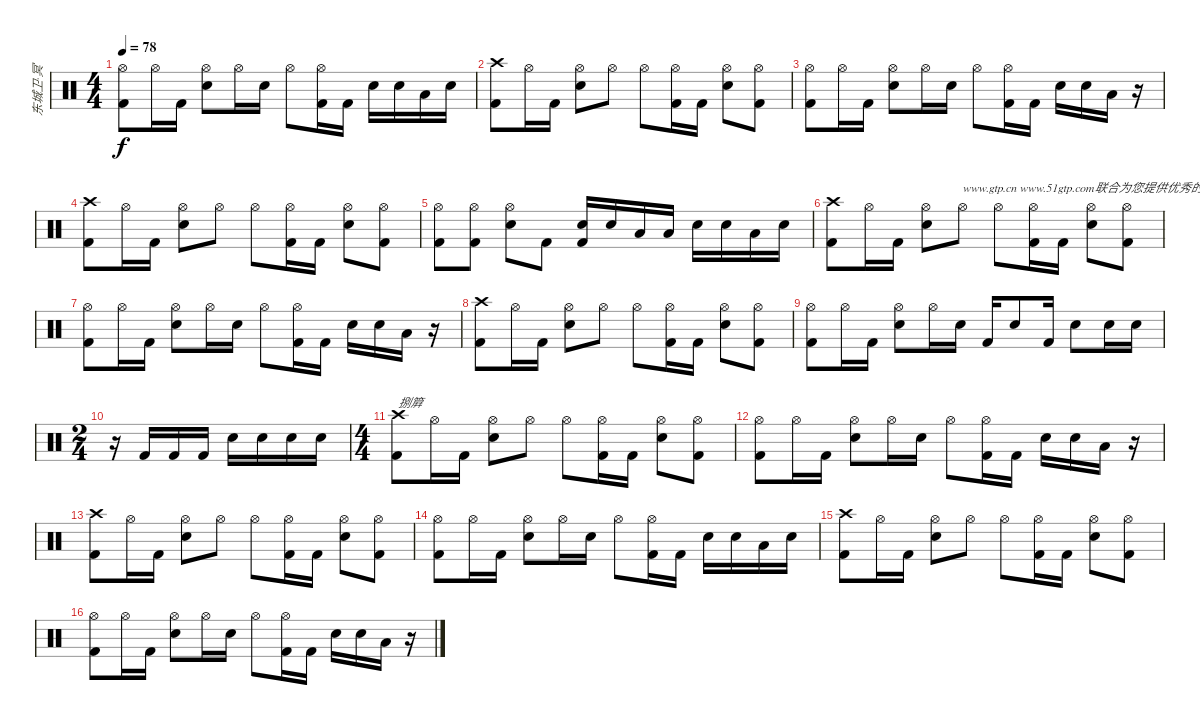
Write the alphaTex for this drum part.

\track ("东城卫·冥" "东城卫·冥") {instrument percussion}
\staff {score}
\articulation defaults
\ts (4 4)
\tempo 78
\clef neutral
\ks c
("Hi-Hat (open)" "Kick (hit) 2").8{dy f} "Hi-Hat (open)".16 "Kick (hit) 2".16 ("Hi-Hat (open)" "Electric Snare (hit)").8 "Hi-Hat (open)".16 "Electric Snare (hit)".16 "Hi-Hat (open)".8 ("Hi-Hat (open)" "Kick (hit) 2").16 "Kick (hit) 2".16 "Electric Snare (hit)".16 "Electric Snare (hit)".16 "Low Tom (hit)".16 "Electric Snare (hit)".16 |
("Crash high (hit)" "Kick (hit) 2").8 "Hi-Hat (open)".16 "Kick (hit) 2".16 ("Hi-Hat (open)" "Electric Snare (hit)").8 "Hi-Hat (open)".8 "Hi-Hat (open)".8 ("Hi-Hat (open)" "Kick (hit) 2").16 "Kick (hit) 2".16 ("Hi-Hat (open)" "Electric Snare (hit)").8 ("Hi-Hat (open)" "Kick (hit) 2").8 |
("Hi-Hat (open)" "Kick (hit) 2").8 "Hi-Hat (open)".16 "Kick (hit) 2".16 ("Hi-Hat (open)" "Electric Snare (hit)").8 "Hi-Hat (open)".16 "Electric Snare (hit)".16 "Hi-Hat (open)".8 ("Hi-Hat (open)" "Kick (hit) 2").16 "Kick (hit) 2".16 "Electric Snare (hit)".16 "Electric Snare (hit)".16 "Low Tom (hit)".16 r.16 |
("Crash high (hit)" "Kick (hit) 2").8 "Hi-Hat (open)".16 "Kick (hit) 2".16 ("Hi-Hat (open)" "Electric Snare (hit)").8 "Hi-Hat (open)".8 "Hi-Hat (open)".8 ("Hi-Hat (open)" "Kick (hit) 2").16 "Kick (hit) 2".16 ("Hi-Hat (open)" "Electric Snare (hit)").8 ("Hi-Hat (open)" "Kick (hit) 2").8 |
("Hi-Hat (open)" "Kick (hit) 2").8 ("Hi-Hat (open)" "Kick (hit) 2").8 ("Hi-Hat (open)" "Electric Snare (hit)").8 "Kick (hit) 2".8 ("Electric Snare (hit)" "Kick (hit) 2").16 "Electric Snare (hit)".16 "Low Tom (hit)".16 "Low Tom (hit)".16 "Electric Snare (hit)".16 "Electric Snare (hit)".16 "Low Tom (hit)".16 "Electric Snare (hit)".16 |
("Crash high (hit)" "Kick (hit) 2").8 "Hi-Hat (open)".16 "Kick (hit) 2".16 ("Hi-Hat (open)" "Electric Snare (hit)").8 "Hi-Hat (open)".8{txt "www.gtp.cn www.51gtp.com联合为您提供优秀的GTP!"} "Hi-Hat (open)".8 ("Hi-Hat (open)" "Kick (hit) 2").16 "Kick (hit) 2".16 ("Hi-Hat (open)" "Electric Snare (hit)").8 ("Hi-Hat (open)" "Kick (hit) 2").8 |
("Hi-Hat (open)" "Kick (hit) 2").8 "Hi-Hat (open)".16 "Kick (hit) 2".16 ("Hi-Hat (open)" "Electric Snare (hit)").8 "Hi-Hat (open)".16 "Electric Snare (hit)".16 "Hi-Hat (open)".8 ("Hi-Hat (open)" "Kick (hit) 2").16 "Kick (hit) 2".16 "Electric Snare (hit)".16 "Electric Snare (hit)".16 "Low Tom (hit)".16 r.16 |
("Crash high (hit)" "Kick (hit) 2").8 "Hi-Hat (open)".16 "Kick (hit) 2".16 ("Hi-Hat (open)" "Electric Snare (hit)").8 "Hi-Hat (open)".8 "Hi-Hat (open)".8 ("Hi-Hat (open)" "Kick (hit) 2").16 "Kick (hit) 2".16 ("Hi-Hat (open)" "Electric Snare (hit)").8 ("Hi-Hat (open)" "Kick (hit) 2").8 |
("Hi-Hat (open)" "Kick (hit) 2").8 "Hi-Hat (open)".16 "Kick (hit) 2".16 ("Hi-Hat (open)" "Electric Snare (hit)").8 "Hi-Hat (open)".16 "Electric Snare (hit)".16 "Kick (hit) 2".16 "Electric Snare (hit)".8 "Kick (hit) 2".16 "Electric Snare (hit)".8 "Electric Snare (hit)".16 "Electric Snare (hit)".16 |
\ts (2 4)
r.16 "Kick (hit) 2".16 "Kick (hit) 2".16 "Kick (hit) 2".16 "Electric Snare (hit)".16 "Electric Snare (hit)".16 "Electric Snare (hit)".16 "Electric Snare (hit)".16 |
\ts (4 4)
("Crash high (hit)" "Kick (hit) 2").8{txt "捌簈"} "Hi-Hat (open)".16 "Kick (hit) 2".16 ("Hi-Hat (open)" "Electric Snare (hit)").8 "Hi-Hat (open)".8 "Hi-Hat (open)".8 ("Hi-Hat (open)" "Kick (hit) 2").16 "Kick (hit) 2".16 ("Hi-Hat (open)" "Electric Snare (hit)").8 ("Hi-Hat (open)" "Kick (hit) 2").8 |
("Hi-Hat (open)" "Kick (hit) 2").8 "Hi-Hat (open)".16 "Kick (hit) 2".16 ("Hi-Hat (open)" "Electric Snare (hit)").8 "Hi-Hat (open)".16 "Electric Snare (hit)".16 "Hi-Hat (open)".8 ("Hi-Hat (open)" "Kick (hit) 2").16 "Kick (hit) 2".16 "Electric Snare (hit)".16 "Electric Snare (hit)".16 "Low Tom (hit)".16 r.16 |
("Crash high (hit)" "Kick (hit) 2").8 "Hi-Hat (open)".16 "Kick (hit) 2".16 ("Hi-Hat (open)" "Electric Snare (hit)").8 "Hi-Hat (open)".8 "Hi-Hat (open)".8 ("Hi-Hat (open)" "Kick (hit) 2").16 "Kick (hit) 2".16 ("Hi-Hat (open)" "Electric Snare (hit)").8 ("Hi-Hat (open)" "Kick (hit) 2").8 |
("Hi-Hat (open)" "Kick (hit) 2").8 "Hi-Hat (open)".16 "Kick (hit) 2".16 ("Hi-Hat (open)" "Electric Snare (hit)").8 "Hi-Hat (open)".16 "Electric Snare (hit)".16 "Hi-Hat (open)".8 ("Hi-Hat (open)" "Kick (hit) 2").16 "Kick (hit) 2".16 "Electric Snare (hit)".16 "Electric Snare (hit)".16 "Low Tom (hit)".16 "Electric Snare (hit)".16 |
("Crash high (hit)" "Kick (hit) 2").8 "Hi-Hat (open)".16 "Kick (hit) 2".16 ("Hi-Hat (open)" "Electric Snare (hit)").8 "Hi-Hat (open)".8 "Hi-Hat (open)".8 ("Hi-Hat (open)" "Kick (hit) 2").16 "Kick (hit) 2".16 ("Hi-Hat (open)" "Electric Snare (hit)").8 ("Hi-Hat (open)" "Kick (hit) 2").8 |
("Hi-Hat (open)" "Kick (hit) 2").8 "Hi-Hat (open)".16 "Kick (hit) 2".16 ("Hi-Hat (open)" "Electric Snare (hit)").8 "Hi-Hat (open)".16 "Electric Snare (hit)".16 "Hi-Hat (open)".8 ("Hi-Hat (open)" "Kick (hit) 2").16 "Kick (hit) 2".16 "Electric Snare (hit)".16 "Electric Snare (hit)".16 "Low Tom (hit)".16 r.16
